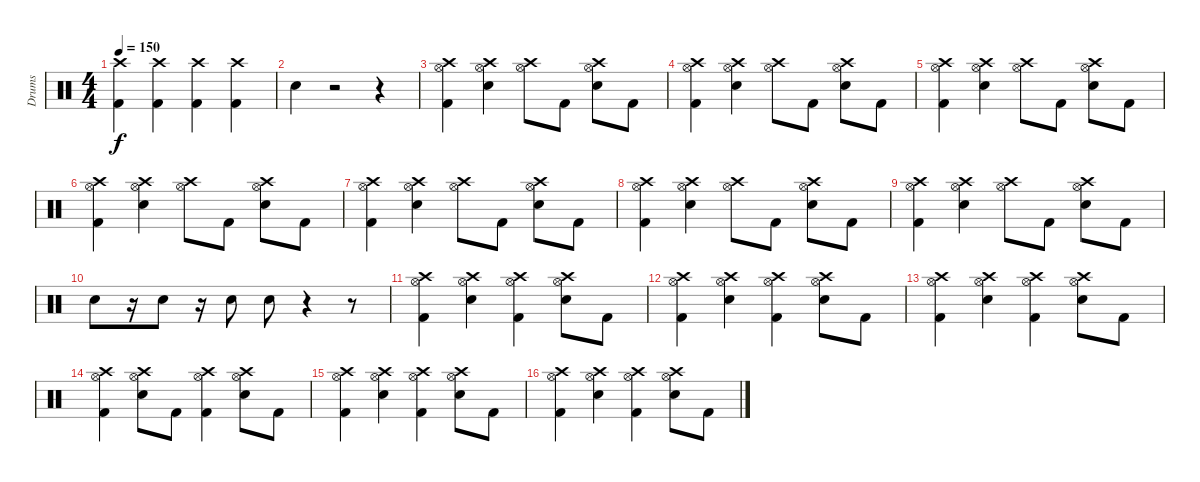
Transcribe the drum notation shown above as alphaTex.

\track ("Drums" "Drums") {instrument percussion}
\staff {score}
\articulation defaults
\ts (4 4)
\tempo 150
\clef neutral
\ks c
("Crash high (hit)" "Kick (hit) 2").4{dy f} ("Crash high (hit)" "Kick (hit) 2").4 ("Crash high (hit)" "Kick (hit) 2").4 ("Crash high (hit)" "Kick (hit) 2").4 |
"Snare (hit) 2".4 r.2 r.4 |
("Crash high (hit)" "Kick (hit) 2" "Hi-Hat (open)").4 ("Crash high (hit)" "Electric Snare (hit)" "Hi-Hat (open)").4 ("Crash high (hit)" "Hi-Hat (open)").8 "Kick (hit) 2".8 ("Crash high (hit)" "Electric Snare (hit)" "Hi-Hat (open)").8 "Kick (hit) 2".8 |
("Crash high (hit)" "Kick (hit) 2" "Hi-Hat (open)").4 ("Crash high (hit)" "Electric Snare (hit)" "Hi-Hat (open)").4 ("Crash high (hit)" "Hi-Hat (open)").8 "Kick (hit) 2".8 ("Crash high (hit)" "Electric Snare (hit)" "Hi-Hat (open)").8 "Kick (hit) 2".8 |
("Crash high (hit)" "Kick (hit) 2" "Hi-Hat (open)").4 ("Crash high (hit)" "Electric Snare (hit)" "Hi-Hat (open)").4 ("Crash high (hit)" "Hi-Hat (open)").8 "Kick (hit) 2".8 ("Crash high (hit)" "Electric Snare (hit)" "Hi-Hat (open)").8 "Kick (hit) 2".8 |
("Crash high (hit)" "Kick (hit) 2" "Hi-Hat (open)").4 ("Crash high (hit)" "Electric Snare (hit)" "Hi-Hat (open)").4 ("Crash high (hit)" "Hi-Hat (open)").8 "Kick (hit) 2".8 ("Crash high (hit)" "Electric Snare (hit)" "Hi-Hat (open)").8 "Kick (hit) 2".8 |
("Crash high (hit)" "Kick (hit) 2" "Hi-Hat (open)").4 ("Crash high (hit)" "Electric Snare (hit)" "Hi-Hat (open)").4 ("Crash high (hit)" "Hi-Hat (open)").8 "Kick (hit) 2".8 ("Crash high (hit)" "Electric Snare (hit)" "Hi-Hat (open)").8 "Kick (hit) 2".8 |
("Crash high (hit)" "Kick (hit) 2" "Hi-Hat (open)").4 ("Crash high (hit)" "Electric Snare (hit)" "Hi-Hat (open)").4 ("Crash high (hit)" "Hi-Hat (open)").8 "Kick (hit) 2".8 ("Crash high (hit)" "Electric Snare (hit)" "Hi-Hat (open)").8 "Kick (hit) 2".8 |
("Crash high (hit)" "Kick (hit) 2" "Hi-Hat (open)").4 ("Crash high (hit)" "Electric Snare (hit)" "Hi-Hat (open)").4 ("Crash high (hit)" "Hi-Hat (open)").8 "Kick (hit) 2".8 ("Crash high (hit)" "Electric Snare (hit)" "Hi-Hat (open)").8 "Kick (hit) 2".8 |
"Electric Snare (hit)".8 r.16 "Electric Snare (hit)".8 r.16 "Electric Snare (hit)".8 "Electric Snare (hit)".8 r.4 r.8 |
("Crash high (hit)" "Kick (hit) 2" "Hi-Hat (open)").4 ("Crash high (hit)" "Electric Snare (hit)" "Hi-Hat (open)").4 ("Crash high (hit)" "Kick (hit) 2" "Hi-Hat (open)").4 ("Crash high (hit)" "Electric Snare (hit)" "Hi-Hat (open)").8 "Kick (hit) 2".8 |
("Crash high (hit)" "Kick (hit) 2" "Hi-Hat (open)").4 ("Crash high (hit)" "Electric Snare (hit)" "Hi-Hat (open)").4 ("Crash high (hit)" "Kick (hit) 2" "Hi-Hat (open)").4 ("Crash high (hit)" "Electric Snare (hit)" "Hi-Hat (open)").8 "Kick (hit) 2".8 |
("Crash high (hit)" "Kick (hit) 2" "Hi-Hat (open)").4 ("Crash high (hit)" "Electric Snare (hit)" "Hi-Hat (open)").4 ("Crash high (hit)" "Kick (hit) 2" "Hi-Hat (open)").4 ("Crash high (hit)" "Electric Snare (hit)" "Hi-Hat (open)").8 "Kick (hit) 2".8 |
("Crash high (hit)" "Kick (hit) 2" "Hi-Hat (open)").4 ("Crash high (hit)" "Electric Snare (hit)" "Hi-Hat (open)").8 "Kick (hit) 2".8 ("Crash high (hit)" "Kick (hit) 2" "Hi-Hat (open)").4 ("Crash high (hit)" "Electric Snare (hit)" "Hi-Hat (open)").8 "Kick (hit) 2".8 |
("Crash high (hit)" "Kick (hit) 2" "Hi-Hat (open)").4 ("Crash high (hit)" "Electric Snare (hit)" "Hi-Hat (open)").4 ("Crash high (hit)" "Kick (hit) 2" "Hi-Hat (open)").4 ("Crash high (hit)" "Electric Snare (hit)" "Hi-Hat (open)").8 "Kick (hit) 2".8 |
("Crash high (hit)" "Kick (hit) 2" "Hi-Hat (open)").4 ("Crash high (hit)" "Electric Snare (hit)" "Hi-Hat (open)").4 ("Crash high (hit)" "Kick (hit) 2" "Hi-Hat (open)").4 ("Crash high (hit)" "Electric Snare (hit)" "Hi-Hat (open)").8 "Kick (hit) 2".8
